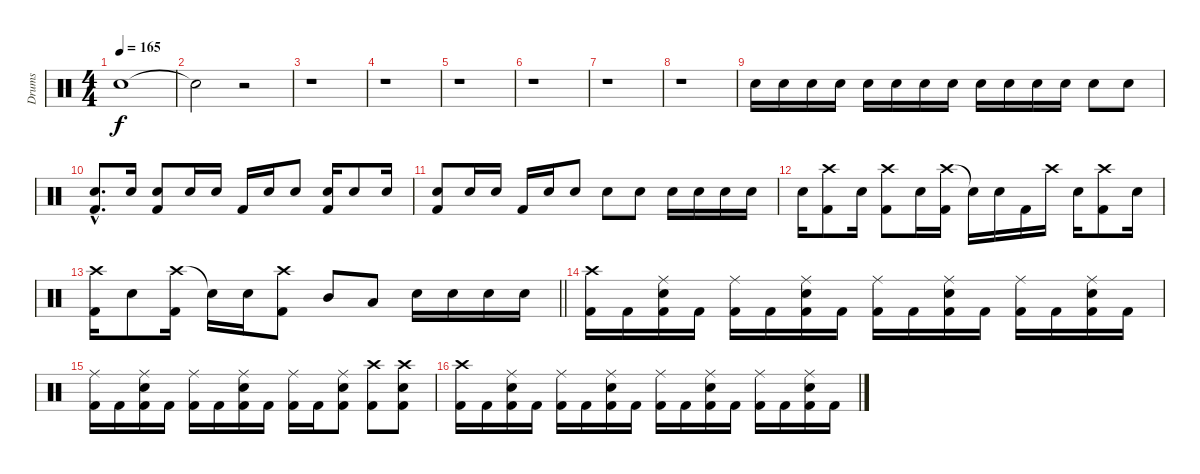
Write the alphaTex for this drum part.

\track ("Drums" "Drums") {instrument percussion}
\staff {score}
\articulation defaults
\ts (4 4)
\tempo 165
\clef neutral
\ks c "Snare (hit)"{t}.1{dy f}
|
"Snare (hit)"{t}.2 r.2 |
r.1 |
r.1 |
r.1 |
r.1 |
r.1 |
r.1 |
"Snare (hit) 2".16 "Snare (hit) 2".16 "Snare (hit) 2".16 "Snare (hit) 2".16 "Snare (hit) 2".16 "Snare (hit) 2".16 "Snare (hit) 2".16 "Snare (hit) 2".16 "Snare (hit) 2".16 "Snare (hit) 2".16 "Snare (hit) 2".16 "Snare (hit) 2".16 "Snare (hit) 2".8 "Snare (hit) 2".8 |
("Snare (hit) 2"{hac} "Kick (hit) 2"{hac}).8{d} "Snare (hit) 2".16 ("Snare (hit) 2" "Kick (hit) 2").8 "Snare (hit) 2".16 "Snare (hit) 2".16 "Kick (hit) 2".16 "Snare (hit) 2".16 "Snare (hit) 2".8 ("Snare (hit) 2" "Kick (hit) 2").16 "Snare (hit) 2".8 "Snare (hit) 2".16 |
("Snare (hit) 2" "Kick (hit) 2").8 "Snare (hit) 2".16 "Snare (hit) 2".16 "Kick (hit) 2".16 "Snare (hit) 2".16 "Snare (hit) 2".8 "Snare (hit) 2".8 "Snare (hit) 2".8 "Snare (hit) 2".16 "Snare (hit) 2".16 "Snare (hit) 2".16 "Snare (hit) 2".16 |
"Snare (hit) 2".16 ("Crash high (hit)" "Kick (hit) 2").8 "Snare (hit) 2".16 ("Crash high (hit)" "Kick (hit) 2").8 "Snare (hit) 2".16 ("Crash high (hit)" "Kick (hit) 2").16 "Snare (hit)"{t}.16 "Snare (hit) 2".16 "Kick (hit) 2".16 "Crash high (hit)".16 "Snare (hit) 2".16 ("Crash high (hit)" "Kick (hit) 2").8 "Snare (hit) 2".16 |
\barLineRight lightlight
("Crash high (hit)" "Kick (hit) 2").16 "Snare (hit) 2".8 ("Crash high (hit)" "Kick (hit) 2").16 "Snare (hit)"{t}.16 "Snare (hit) 2".16 ("Crash high (hit)" "Kick (hit) 2").8 "Mid Tom (hit)".8 "Low Tom (hit)".8 "Snare (hit) 2".16 "Snare (hit) 2".16 "Snare (hit) 2".16 "Snare (hit) 2".16 |
("Crash high (hit)" "Kick (hit) 2").16 "Kick (hit) 2".16 ("Ride (middle)" "Snare (hit) 2" "Kick (hit) 2").16 "Kick (hit) 2".16 ("Ride (middle)" "Kick (hit) 2").16 "Kick (hit) 2".16 ("Ride (middle)" "Snare (hit) 2" "Kick (hit) 2").16 "Kick (hit) 2".16 ("Ride (middle)" "Kick (hit) 2").16 "Kick (hit) 2".16 ("Ride (middle)" "Snare (hit) 2" "Kick (hit) 2").16 "Kick (hit) 2".16 ("Ride (middle)" "Kick (hit) 2").16 "Kick (hit) 2".16 ("Ride (middle)" "Snare (hit) 2" "Kick (hit) 2").16 "Kick (hit) 2".16 |
("Ride (middle)" "Kick (hit) 2").16 "Kick (hit) 2".16 ("Ride (middle)" "Snare (hit) 2" "Kick (hit) 2").16 "Kick (hit) 2".16 ("Ride (middle)" "Kick (hit) 2").16 "Kick (hit) 2".16 ("Ride (middle)" "Snare (hit) 2" "Kick (hit) 2").16 "Kick (hit) 2".16 ("Ride (middle)" "Kick (hit) 2").16 "Kick (hit) 2".16 ("Ride (middle)" "Snare (hit) 2" "Kick (hit) 2").8 ("Crash high (hit)" "Kick (hit) 2").8 ("Crash high (hit)" "Snare (hit) 2" "Kick (hit) 2").8 |
("Crash high (hit)" "Kick (hit) 2").16 "Kick (hit) 2".16 ("Ride (middle)" "Snare (hit) 2" "Kick (hit) 2").16 "Kick (hit) 2".16 ("Ride (middle)" "Kick (hit) 2").16 "Kick (hit) 2".16 ("Ride (middle)" "Snare (hit) 2" "Kick (hit) 2").16 "Kick (hit) 2".16 ("Ride (middle)" "Kick (hit) 2").16 "Kick (hit) 2".16 ("Ride (middle)" "Snare (hit) 2" "Kick (hit) 2").16 "Kick (hit) 2".16 ("Ride (middle)" "Kick (hit) 2").16 "Kick (hit) 2".16 ("Ride (middle)" "Snare (hit) 2" "Kick (hit) 2").16 "Kick (hit) 2".16
